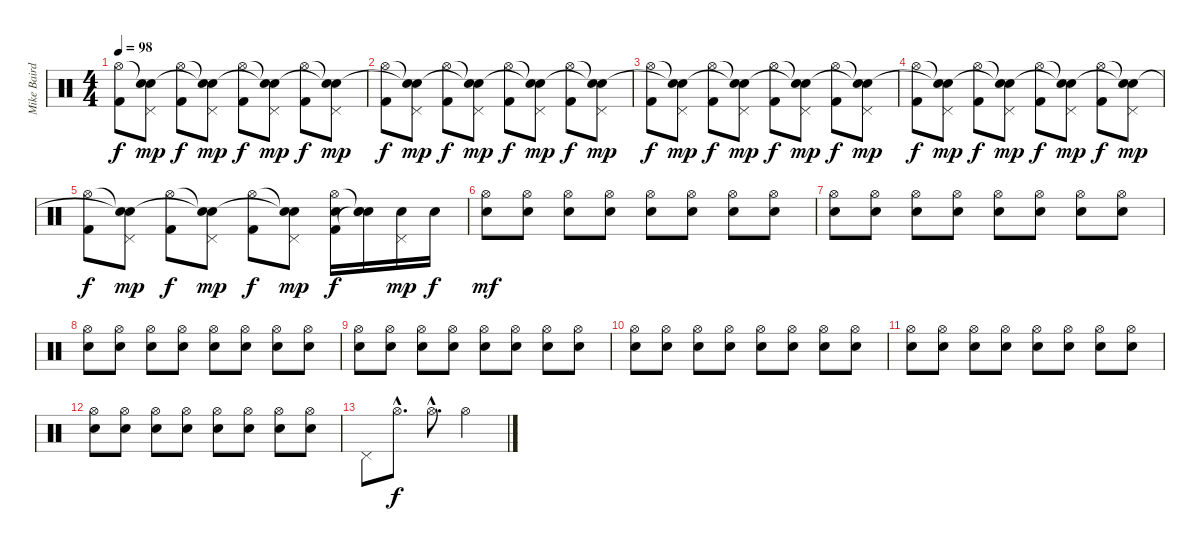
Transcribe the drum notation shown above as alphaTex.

\track ("Mike Baird [drums]" "Mike Baird") {instrument percussion}
\staff {score}
\articulation defaults
\ts (4 4)
\tempo 98
\clef neutral
\ks c
("Hi-Hat (open)" "Kick (hit) 2").8{dy f} ("Snare (hit)"{t} "Pedal Hi-Hat (hit)" "Snare (hit)"{t}).8{dy mp} ("Hi-Hat (open)" "Kick (hit) 2").8{dy f} ("Snare (hit)"{t} "Pedal Hi-Hat (hit)" "Snare (hit)"{t}).8{dy mp} ("Hi-Hat (open)" "Kick (hit) 2").8{dy f} ("Snare (hit)"{t} "Pedal Hi-Hat (hit)" "Snare (hit)"{t}).8{dy mp} ("Hi-Hat (open)" "Kick (hit) 2").8{dy f} ("Snare (hit)"{t} "Pedal Hi-Hat (hit)" "Snare (hit)"{t}).8{dy mp} |
("Hi-Hat (open)" "Kick (hit) 2").8{dy f} ("Snare (hit)"{t} "Pedal Hi-Hat (hit)" "Snare (hit)"{t}).8{dy mp} ("Hi-Hat (open)" "Kick (hit) 2").8{dy f} ("Snare (hit)"{t} "Pedal Hi-Hat (hit)" "Snare (hit)"{t}).8{dy mp} ("Hi-Hat (open)" "Kick (hit) 2").8{dy f} ("Snare (hit)"{t} "Pedal Hi-Hat (hit)" "Snare (hit)"{t}).8{dy mp} ("Hi-Hat (open)" "Kick (hit) 2").8{dy f} ("Snare (hit)"{t} "Pedal Hi-Hat (hit)" "Snare (hit)"{t}).8{dy mp} |
("Hi-Hat (open)" "Kick (hit) 2").8{dy f} ("Snare (hit)"{t} "Pedal Hi-Hat (hit)" "Snare (hit)"{t}).8{dy mp} ("Hi-Hat (open)" "Kick (hit) 2").8{dy f} ("Snare (hit)"{t} "Pedal Hi-Hat (hit)" "Snare (hit)"{t}).8{dy mp} ("Hi-Hat (open)" "Kick (hit) 2").8{dy f} ("Snare (hit)"{t} "Pedal Hi-Hat (hit)" "Snare (hit)"{t}).8{dy mp} ("Hi-Hat (open)" "Kick (hit) 2").8{dy f} ("Snare (hit)"{t} "Pedal Hi-Hat (hit)" "Snare (hit)"{t}).8{dy mp} |
("Hi-Hat (open)" "Kick (hit) 2").8{dy f} ("Snare (hit)"{t} "Pedal Hi-Hat (hit)" "Snare (hit)"{t}).8{dy mp} ("Hi-Hat (open)" "Kick (hit) 2").8{dy f} ("Snare (hit)"{t} "Pedal Hi-Hat (hit)" "Snare (hit)"{t}).8{dy mp} ("Hi-Hat (open)" "Kick (hit) 2").8{dy f} ("Snare (hit)"{t} "Pedal Hi-Hat (hit)" "Snare (hit)"{t}).8{dy mp} ("Hi-Hat (open)" "Kick (hit) 2").8{dy f} ("Snare (hit)"{t} "Pedal Hi-Hat (hit)" "Snare (hit)"{t}).8{dy mp} |
("Hi-Hat (open)" "Kick (hit) 2").8{dy f} ("Snare (hit)"{t} "Pedal Hi-Hat (hit)" "Snare (hit)"{t}).8{dy mp} ("Hi-Hat (open)" "Kick (hit) 2").8{dy f} ("Snare (hit)"{t} "Pedal Hi-Hat (hit)" "Snare (hit)"{t}).8{dy mp} ("Hi-Hat (open)" "Kick (hit) 2").8{dy f} ("Snare (hit)"{t} "Pedal Hi-Hat (hit)" "Snare (hit)"{t}).8{dy mp} ("Hi-Hat (open)" "Kick (hit) 2" "Electric Snare (hit)").16{dy f} ("Snare (hit)"{t} "Snare (hit)"{t} "Electric Snare (hit)").16 ("Pedal Hi-Hat (hit)" "Electric Snare (hit)").16{dy mp} "Electric Snare (hit)".16{dy f} |
("Hi-Hat (open)" "Electric Snare (hit)").8{dy mf} ("Hi-Hat (open)" "Electric Snare (hit)").8 ("Hi-Hat (open)" "Electric Snare (hit)").8 ("Hi-Hat (open)" "Electric Snare (hit)").8 ("Hi-Hat (open)" "Electric Snare (hit)").8 ("Hi-Hat (open)" "Electric Snare (hit)").8 ("Hi-Hat (open)" "Electric Snare (hit)").8 ("Hi-Hat (open)" "Electric Snare (hit)").8 |
("Hi-Hat (open)" "Electric Snare (hit)").8 ("Hi-Hat (open)" "Electric Snare (hit)").8 ("Hi-Hat (open)" "Electric Snare (hit)").8 ("Hi-Hat (open)" "Electric Snare (hit)").8 ("Hi-Hat (open)" "Electric Snare (hit)").8 ("Hi-Hat (open)" "Electric Snare (hit)").8 ("Hi-Hat (open)" "Electric Snare (hit)").8 ("Hi-Hat (open)" "Electric Snare (hit)").8 |
("Hi-Hat (open)" "Electric Snare (hit)").8 ("Hi-Hat (open)" "Electric Snare (hit)").8 ("Hi-Hat (open)" "Electric Snare (hit)").8 ("Hi-Hat (open)" "Electric Snare (hit)").8 ("Hi-Hat (open)" "Electric Snare (hit)").8 ("Hi-Hat (open)" "Electric Snare (hit)").8 ("Hi-Hat (open)" "Electric Snare (hit)").8 ("Hi-Hat (open)" "Electric Snare (hit)").8 |
("Hi-Hat (open)" "Electric Snare (hit)").8 ("Hi-Hat (open)" "Electric Snare (hit)").8 ("Hi-Hat (open)" "Electric Snare (hit)").8 ("Hi-Hat (open)" "Electric Snare (hit)").8 ("Hi-Hat (open)" "Electric Snare (hit)").8 ("Hi-Hat (open)" "Electric Snare (hit)").8 ("Hi-Hat (open)" "Electric Snare (hit)").8 ("Hi-Hat (open)" "Electric Snare (hit)").8 |
("Hi-Hat (open)" "Electric Snare (hit)").8 ("Hi-Hat (open)" "Electric Snare (hit)").8 ("Hi-Hat (open)" "Electric Snare (hit)").8 ("Hi-Hat (open)" "Electric Snare (hit)").8 ("Hi-Hat (open)" "Electric Snare (hit)").8 ("Hi-Hat (open)" "Electric Snare (hit)").8 ("Hi-Hat (open)" "Electric Snare (hit)").8 ("Hi-Hat (open)" "Electric Snare (hit)").8 |
("Hi-Hat (open)" "Electric Snare (hit)").8 ("Hi-Hat (open)" "Electric Snare (hit)").8 ("Hi-Hat (open)" "Electric Snare (hit)").8 ("Hi-Hat (open)" "Electric Snare (hit)").8 ("Hi-Hat (open)" "Electric Snare (hit)").8 ("Hi-Hat (open)" "Electric Snare (hit)").8 ("Hi-Hat (open)" "Electric Snare (hit)").8 ("Hi-Hat (open)" "Electric Snare (hit)").8 |
("Hi-Hat (open)" "Electric Snare (hit)").8 ("Hi-Hat (open)" "Electric Snare (hit)").8 ("Hi-Hat (open)" "Electric Snare (hit)").8 ("Hi-Hat (open)" "Electric Snare (hit)").8 ("Hi-Hat (open)" "Electric Snare (hit)").8 ("Hi-Hat (open)" "Electric Snare (hit)").8 ("Hi-Hat (open)" "Electric Snare (hit)").8 ("Hi-Hat (open)" "Electric Snare (hit)").8 |
"Pedal Hi-Hat (hit)".8 "Hi-Hat (open)"{hac}.8{d dy f} "Hi-Hat (open)"{hac}.8{d} "Hi-Hat (open)".2
